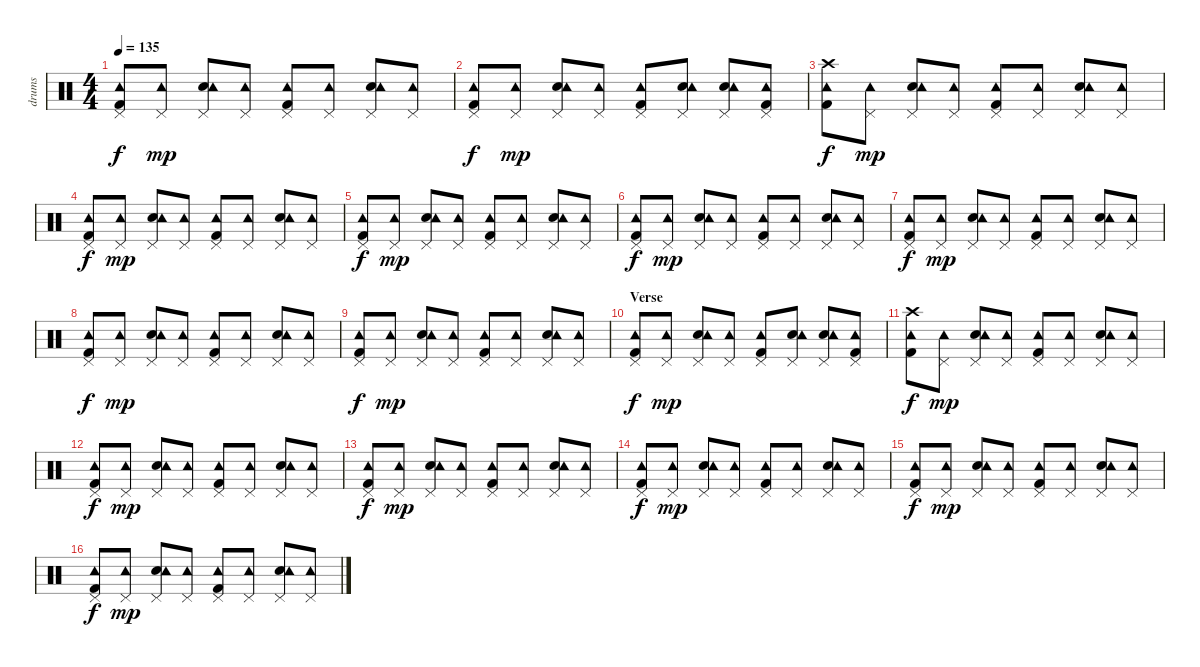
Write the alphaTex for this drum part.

\track ("drums" "drums") {instrument percussion}
\staff {score}
\articulation defaults
\ts (4 4)
\tempo 135
\clef neutral
\ks c
("Kick (hit) 2" "Pedal Hi-Hat (hit)" "Tambourine (hit)").8{dy f} ("Pedal Hi-Hat (hit)" "Tambourine (hit)").8{dy mp} ("Electric Snare (hit)" "Pedal Hi-Hat (hit)" "Tambourine (hit)").8 ("Pedal Hi-Hat (hit)" "Tambourine (hit)").8 ("Kick (hit) 2" "Pedal Hi-Hat (hit)" "Tambourine (hit)").8 ("Pedal Hi-Hat (hit)" "Tambourine (hit)").8 ("Electric Snare (hit)" "Pedal Hi-Hat (hit)" "Tambourine (hit)").8 ("Pedal Hi-Hat (hit)" "Tambourine (hit)").8 |
("Kick (hit) 2" "Pedal Hi-Hat (hit)" "Tambourine (hit)").8{dy f} ("Pedal Hi-Hat (hit)" "Tambourine (hit)").8{dy mp} ("Electric Snare (hit)" "Pedal Hi-Hat (hit)" "Tambourine (hit)").8 ("Pedal Hi-Hat (hit)" "Tambourine (hit)").8 ("Kick (hit) 2" "Pedal Hi-Hat (hit)" "Tambourine (hit)").8 ("Electric Snare (hit)" "Pedal Hi-Hat (hit)" "Tambourine (hit)").8 ("Electric Snare (hit)" "Pedal Hi-Hat (hit)" "Tambourine (hit)").8 ("Kick (hit) 2" "Pedal Hi-Hat (hit)" "Tambourine (hit)").8 |
("Kick (hit) 2" "Crash high (hit)" "Tambourine (hit)").8{dy f} ("Pedal Hi-Hat (hit)" "Tambourine (hit)").8{dy mp} ("Electric Snare (hit)" "Pedal Hi-Hat (hit)" "Tambourine (hit)").8 ("Pedal Hi-Hat (hit)" "Tambourine (hit)").8 ("Kick (hit) 2" "Pedal Hi-Hat (hit)" "Tambourine (hit)").8 ("Pedal Hi-Hat (hit)" "Tambourine (hit)").8 ("Electric Snare (hit)" "Pedal Hi-Hat (hit)" "Tambourine (hit)").8 ("Pedal Hi-Hat (hit)" "Tambourine (hit)").8 |
("Kick (hit) 2" "Pedal Hi-Hat (hit)" "Tambourine (hit)").8{dy f} ("Pedal Hi-Hat (hit)" "Tambourine (hit)").8{dy mp} ("Electric Snare (hit)" "Pedal Hi-Hat (hit)" "Tambourine (hit)").8 ("Pedal Hi-Hat (hit)" "Tambourine (hit)").8 ("Kick (hit) 2" "Pedal Hi-Hat (hit)" "Tambourine (hit)").8 ("Pedal Hi-Hat (hit)" "Tambourine (hit)").8 ("Electric Snare (hit)" "Pedal Hi-Hat (hit)" "Tambourine (hit)").8 ("Pedal Hi-Hat (hit)" "Tambourine (hit)").8 |
("Kick (hit) 2" "Pedal Hi-Hat (hit)" "Tambourine (hit)").8{dy f} ("Pedal Hi-Hat (hit)" "Tambourine (hit)").8{dy mp} ("Electric Snare (hit)" "Pedal Hi-Hat (hit)" "Tambourine (hit)").8 ("Pedal Hi-Hat (hit)" "Tambourine (hit)").8 ("Kick (hit) 2" "Pedal Hi-Hat (hit)" "Tambourine (hit)").8 ("Pedal Hi-Hat (hit)" "Tambourine (hit)").8 ("Electric Snare (hit)" "Pedal Hi-Hat (hit)" "Tambourine (hit)").8 ("Pedal Hi-Hat (hit)" "Tambourine (hit)").8 |
("Kick (hit) 2" "Pedal Hi-Hat (hit)" "Tambourine (hit)").8{dy f} ("Pedal Hi-Hat (hit)" "Tambourine (hit)").8{dy mp} ("Electric Snare (hit)" "Pedal Hi-Hat (hit)" "Tambourine (hit)").8 ("Pedal Hi-Hat (hit)" "Tambourine (hit)").8 ("Kick (hit) 2" "Pedal Hi-Hat (hit)" "Tambourine (hit)").8 ("Pedal Hi-Hat (hit)" "Tambourine (hit)").8 ("Electric Snare (hit)" "Pedal Hi-Hat (hit)" "Tambourine (hit)").8 ("Pedal Hi-Hat (hit)" "Tambourine (hit)").8 |
("Kick (hit) 2" "Pedal Hi-Hat (hit)" "Tambourine (hit)").8{dy f} ("Pedal Hi-Hat (hit)" "Tambourine (hit)").8{dy mp} ("Electric Snare (hit)" "Pedal Hi-Hat (hit)" "Tambourine (hit)").8 ("Pedal Hi-Hat (hit)" "Tambourine (hit)").8 ("Kick (hit) 2" "Pedal Hi-Hat (hit)" "Tambourine (hit)").8 ("Pedal Hi-Hat (hit)" "Tambourine (hit)").8 ("Electric Snare (hit)" "Pedal Hi-Hat (hit)" "Tambourine (hit)").8 ("Pedal Hi-Hat (hit)" "Tambourine (hit)").8 |
("Kick (hit) 2" "Pedal Hi-Hat (hit)" "Tambourine (hit)").8{dy f} ("Pedal Hi-Hat (hit)" "Tambourine (hit)").8{dy mp} ("Electric Snare (hit)" "Pedal Hi-Hat (hit)" "Tambourine (hit)").8 ("Pedal Hi-Hat (hit)" "Tambourine (hit)").8 ("Kick (hit) 2" "Pedal Hi-Hat (hit)" "Tambourine (hit)").8 ("Pedal Hi-Hat (hit)" "Tambourine (hit)").8 ("Electric Snare (hit)" "Pedal Hi-Hat (hit)" "Tambourine (hit)").8 ("Pedal Hi-Hat (hit)" "Tambourine (hit)").8 |
("Kick (hit) 2" "Pedal Hi-Hat (hit)" "Tambourine (hit)").8{dy f} ("Pedal Hi-Hat (hit)" "Tambourine (hit)").8{dy mp} ("Electric Snare (hit)" "Pedal Hi-Hat (hit)" "Tambourine (hit)").8 ("Pedal Hi-Hat (hit)" "Tambourine (hit)").8 ("Kick (hit) 2" "Pedal Hi-Hat (hit)" "Tambourine (hit)").8 ("Pedal Hi-Hat (hit)" "Tambourine (hit)").8 ("Electric Snare (hit)" "Pedal Hi-Hat (hit)" "Tambourine (hit)").8 ("Pedal Hi-Hat (hit)" "Tambourine (hit)").8 |
\section ("" "Verse")
("Kick (hit) 2" "Pedal Hi-Hat (hit)" "Tambourine (hit)").8{dy f} ("Pedal Hi-Hat (hit)" "Tambourine (hit)").8{dy mp} ("Electric Snare (hit)" "Pedal Hi-Hat (hit)" "Tambourine (hit)").8 ("Pedal Hi-Hat (hit)" "Tambourine (hit)").8 ("Kick (hit) 2" "Pedal Hi-Hat (hit)" "Tambourine (hit)").8 ("Electric Snare (hit)" "Pedal Hi-Hat (hit)" "Tambourine (hit)").8 ("Electric Snare (hit)" "Pedal Hi-Hat (hit)" "Tambourine (hit)").8 ("Kick (hit) 2" "Pedal Hi-Hat (hit)" "Tambourine (hit)").8 |
("Kick (hit) 2" "Crash high (hit)" "Tambourine (hit)").8{dy f} ("Pedal Hi-Hat (hit)" "Tambourine (hit)").8{dy mp} ("Electric Snare (hit)" "Pedal Hi-Hat (hit)" "Tambourine (hit)").8 ("Pedal Hi-Hat (hit)" "Tambourine (hit)").8 ("Kick (hit) 2" "Pedal Hi-Hat (hit)" "Tambourine (hit)").8 ("Pedal Hi-Hat (hit)" "Tambourine (hit)").8 ("Electric Snare (hit)" "Pedal Hi-Hat (hit)" "Tambourine (hit)").8 ("Pedal Hi-Hat (hit)" "Tambourine (hit)").8 |
("Kick (hit) 2" "Pedal Hi-Hat (hit)" "Tambourine (hit)").8{dy f} ("Pedal Hi-Hat (hit)" "Tambourine (hit)").8{dy mp} ("Electric Snare (hit)" "Pedal Hi-Hat (hit)" "Tambourine (hit)").8 ("Pedal Hi-Hat (hit)" "Tambourine (hit)").8 ("Kick (hit) 2" "Pedal Hi-Hat (hit)" "Tambourine (hit)").8 ("Pedal Hi-Hat (hit)" "Tambourine (hit)").8 ("Electric Snare (hit)" "Pedal Hi-Hat (hit)" "Tambourine (hit)").8 ("Pedal Hi-Hat (hit)" "Tambourine (hit)").8 |
("Kick (hit) 2" "Pedal Hi-Hat (hit)" "Tambourine (hit)").8{dy f} ("Pedal Hi-Hat (hit)" "Tambourine (hit)").8{dy mp} ("Electric Snare (hit)" "Pedal Hi-Hat (hit)" "Tambourine (hit)").8 ("Pedal Hi-Hat (hit)" "Tambourine (hit)").8 ("Kick (hit) 2" "Pedal Hi-Hat (hit)" "Tambourine (hit)").8 ("Pedal Hi-Hat (hit)" "Tambourine (hit)").8 ("Electric Snare (hit)" "Pedal Hi-Hat (hit)" "Tambourine (hit)").8 ("Pedal Hi-Hat (hit)" "Tambourine (hit)").8 |
("Kick (hit) 2" "Pedal Hi-Hat (hit)" "Tambourine (hit)").8{dy f} ("Pedal Hi-Hat (hit)" "Tambourine (hit)").8{dy mp} ("Electric Snare (hit)" "Pedal Hi-Hat (hit)" "Tambourine (hit)").8 ("Pedal Hi-Hat (hit)" "Tambourine (hit)").8 ("Kick (hit) 2" "Pedal Hi-Hat (hit)" "Tambourine (hit)").8 ("Pedal Hi-Hat (hit)" "Tambourine (hit)").8 ("Electric Snare (hit)" "Pedal Hi-Hat (hit)" "Tambourine (hit)").8 ("Pedal Hi-Hat (hit)" "Tambourine (hit)").8 |
("Kick (hit) 2" "Pedal Hi-Hat (hit)" "Tambourine (hit)").8{dy f} ("Pedal Hi-Hat (hit)" "Tambourine (hit)").8{dy mp} ("Electric Snare (hit)" "Pedal Hi-Hat (hit)" "Tambourine (hit)").8 ("Pedal Hi-Hat (hit)" "Tambourine (hit)").8 ("Kick (hit) 2" "Pedal Hi-Hat (hit)" "Tambourine (hit)").8 ("Pedal Hi-Hat (hit)" "Tambourine (hit)").8 ("Electric Snare (hit)" "Pedal Hi-Hat (hit)" "Tambourine (hit)").8 ("Pedal Hi-Hat (hit)" "Tambourine (hit)").8 |
("Kick (hit) 2" "Pedal Hi-Hat (hit)" "Tambourine (hit)").8{dy f} ("Pedal Hi-Hat (hit)" "Tambourine (hit)").8{dy mp} ("Electric Snare (hit)" "Pedal Hi-Hat (hit)" "Tambourine (hit)").8 ("Pedal Hi-Hat (hit)" "Tambourine (hit)").8 ("Kick (hit) 2" "Pedal Hi-Hat (hit)" "Tambourine (hit)").8 ("Pedal Hi-Hat (hit)" "Tambourine (hit)").8 ("Electric Snare (hit)" "Pedal Hi-Hat (hit)" "Tambourine (hit)").8 ("Pedal Hi-Hat (hit)" "Tambourine (hit)").8
